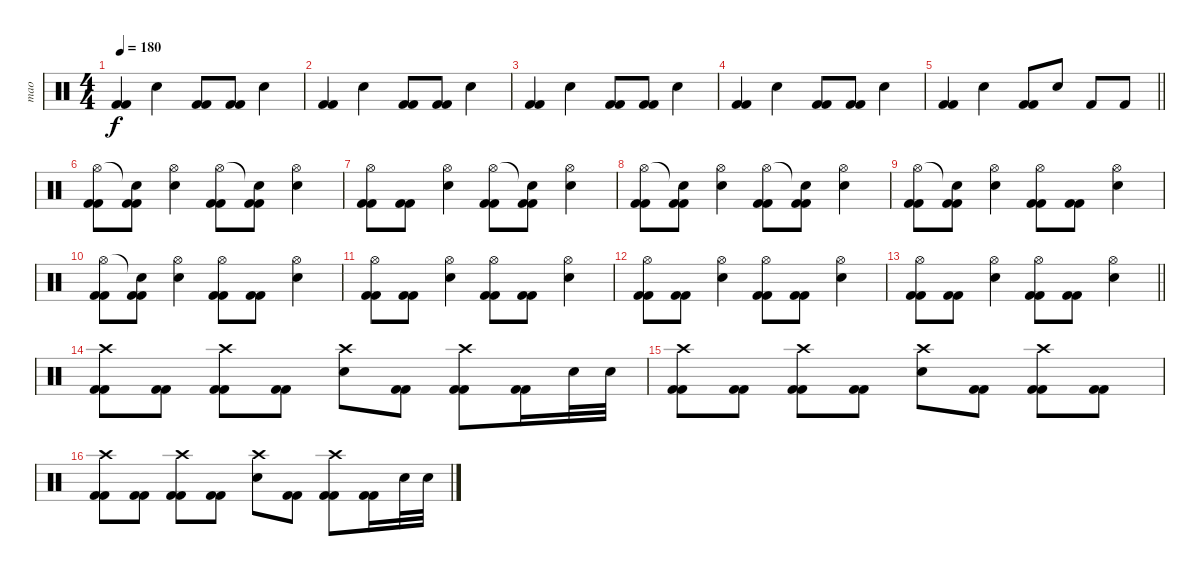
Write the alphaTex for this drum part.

\track ("mao" "mao") {instrument percussion}
\staff {score}
\articulation defaults
\ts (4 4)
\tempo 180
\clef neutral
\ks c
("Kick (hit) 2" "Kick (hit) 2").4{dy f} "Electric Snare (hit)".4 ("Kick (hit) 2" "Kick (hit) 2").8 ("Kick (hit) 2" "Kick (hit) 2").8 "Electric Snare (hit)".4 |
("Kick (hit) 2" "Kick (hit) 2").4 "Electric Snare (hit)".4 ("Kick (hit) 2" "Kick (hit) 2").8 ("Kick (hit) 2" "Kick (hit) 2").8 "Electric Snare (hit)".4 |
("Kick (hit) 2" "Kick (hit) 2").4 "Electric Snare (hit)".4 ("Kick (hit) 2" "Kick (hit) 2").8 ("Kick (hit) 2" "Kick (hit) 2").8 "Electric Snare (hit)".4 |
("Kick (hit) 2" "Kick (hit) 2").4 "Electric Snare (hit)".4 ("Kick (hit) 2" "Kick (hit) 2").8 ("Kick (hit) 2" "Kick (hit) 2").8 "Electric Snare (hit)".4 |
\barLineRight lightlight
("Kick (hit) 2" "Kick (hit) 2").4 "Electric Snare (hit)".4 ("Kick (hit) 2" "Kick (hit) 2").8 "Electric Snare (hit)".8 "Kick (hit) 2".8 "Kick (hit) 2".8 |
("Hi-Hat (open)" "Kick (hit) 2" "Kick (hit) 2").8 ("Snare (hit)"{t} "Kick (hit) 2" "Kick (hit) 2").8 ("Hi-Hat (open)" "Electric Snare (hit)").4 ("Hi-Hat (open)" "Kick (hit) 2" "Kick (hit) 2").8 ("Snare (hit)"{t} "Kick (hit) 2" "Kick (hit) 2").8 ("Hi-Hat (open)" "Electric Snare (hit)").4 |
("Hi-Hat (open)" "Kick (hit) 2" "Kick (hit) 2").8 ("Kick (hit) 2" "Kick (hit) 2").8 ("Hi-Hat (open)" "Electric Snare (hit)").4 ("Hi-Hat (open)" "Kick (hit) 2" "Kick (hit) 2").8 ("Snare (hit)"{t} "Kick (hit) 2" "Kick (hit) 2").8 ("Hi-Hat (open)" "Electric Snare (hit)").4 |
("Hi-Hat (open)" "Kick (hit) 2" "Kick (hit) 2").8 ("Snare (hit)"{t} "Kick (hit) 2" "Kick (hit) 2").8 ("Hi-Hat (open)" "Electric Snare (hit)").4 ("Hi-Hat (open)" "Kick (hit) 2" "Kick (hit) 2").8 ("Snare (hit)"{t} "Kick (hit) 2" "Kick (hit) 2").8 ("Hi-Hat (open)" "Electric Snare (hit)").4 |
("Hi-Hat (open)" "Kick (hit) 2" "Kick (hit) 2").8 ("Snare (hit)"{t} "Kick (hit) 2" "Kick (hit) 2").8 ("Hi-Hat (open)" "Electric Snare (hit)").4 ("Hi-Hat (open)" "Kick (hit) 2" "Kick (hit) 2").8 ("Kick (hit) 2" "Kick (hit) 2").8 ("Hi-Hat (open)" "Electric Snare (hit)").4 |
("Hi-Hat (open)" "Kick (hit) 2" "Kick (hit) 2").8 ("Snare (hit)"{t} "Kick (hit) 2" "Kick (hit) 2").8 ("Hi-Hat (open)" "Electric Snare (hit)").4 ("Hi-Hat (open)" "Kick (hit) 2" "Kick (hit) 2").8 ("Kick (hit) 2" "Kick (hit) 2").8 ("Hi-Hat (open)" "Electric Snare (hit)").4 |
("Hi-Hat (open)" "Kick (hit) 2" "Kick (hit) 2").8 ("Kick (hit) 2" "Kick (hit) 2").8 ("Hi-Hat (open)" "Electric Snare (hit)").4 ("Hi-Hat (open)" "Kick (hit) 2" "Kick (hit) 2").8 ("Kick (hit) 2" "Kick (hit) 2").8 ("Hi-Hat (open)" "Electric Snare (hit)").4 |
("Hi-Hat (open)" "Kick (hit) 2" "Kick (hit) 2").8 ("Kick (hit) 2" "Kick (hit) 2").8 ("Hi-Hat (open)" "Electric Snare (hit)").4 ("Hi-Hat (open)" "Kick (hit) 2" "Kick (hit) 2").8 ("Kick (hit) 2" "Kick (hit) 2").8 ("Hi-Hat (open)" "Electric Snare (hit)").4 |
\barLineRight lightlight
("Hi-Hat (open)" "Kick (hit) 2" "Kick (hit) 2").8 ("Kick (hit) 2" "Kick (hit) 2").8 ("Hi-Hat (open)" "Electric Snare (hit)").4 ("Hi-Hat (open)" "Kick (hit) 2" "Kick (hit) 2").8 ("Kick (hit) 2" "Kick (hit) 2").8 ("Hi-Hat (open)" "Electric Snare (hit)").4 |
("Crash high (hit)" "Kick (hit) 2" "Kick (hit) 2").8 ("Kick (hit) 2" "Kick (hit) 2").8 ("Crash high (hit)" "Kick (hit) 2" "Kick (hit) 2").8 ("Kick (hit) 2" "Kick (hit) 2").8 ("Crash high (hit)" "Electric Snare (hit)").8 ("Kick (hit) 2" "Kick (hit) 2").8 ("Crash high (hit)" "Kick (hit) 2" "Kick (hit) 2").8 ("Kick (hit) 2" "Kick (hit) 2").16 "Electric Snare (hit)".32 "Electric Snare (hit)".32 |
("Crash high (hit)" "Kick (hit) 2" "Kick (hit) 2").8 ("Kick (hit) 2" "Kick (hit) 2").8 ("Crash high (hit)" "Kick (hit) 2" "Kick (hit) 2").8 ("Kick (hit) 2" "Kick (hit) 2").8 ("Crash high (hit)" "Electric Snare (hit)").8 ("Kick (hit) 2" "Kick (hit) 2").8 ("Crash high (hit)" "Kick (hit) 2" "Kick (hit) 2").8 ("Kick (hit) 2" "Kick (hit) 2").8 |
("Crash high (hit)" "Kick (hit) 2" "Kick (hit) 2").8 ("Kick (hit) 2" "Kick (hit) 2").8 ("Crash high (hit)" "Kick (hit) 2" "Kick (hit) 2").8 ("Kick (hit) 2" "Kick (hit) 2").8 ("Crash high (hit)" "Electric Snare (hit)").8 ("Kick (hit) 2" "Kick (hit) 2").8 ("Crash high (hit)" "Kick (hit) 2" "Kick (hit) 2").8 ("Kick (hit) 2" "Kick (hit) 2").16 "Electric Snare (hit)".32 "Electric Snare (hit)".32
